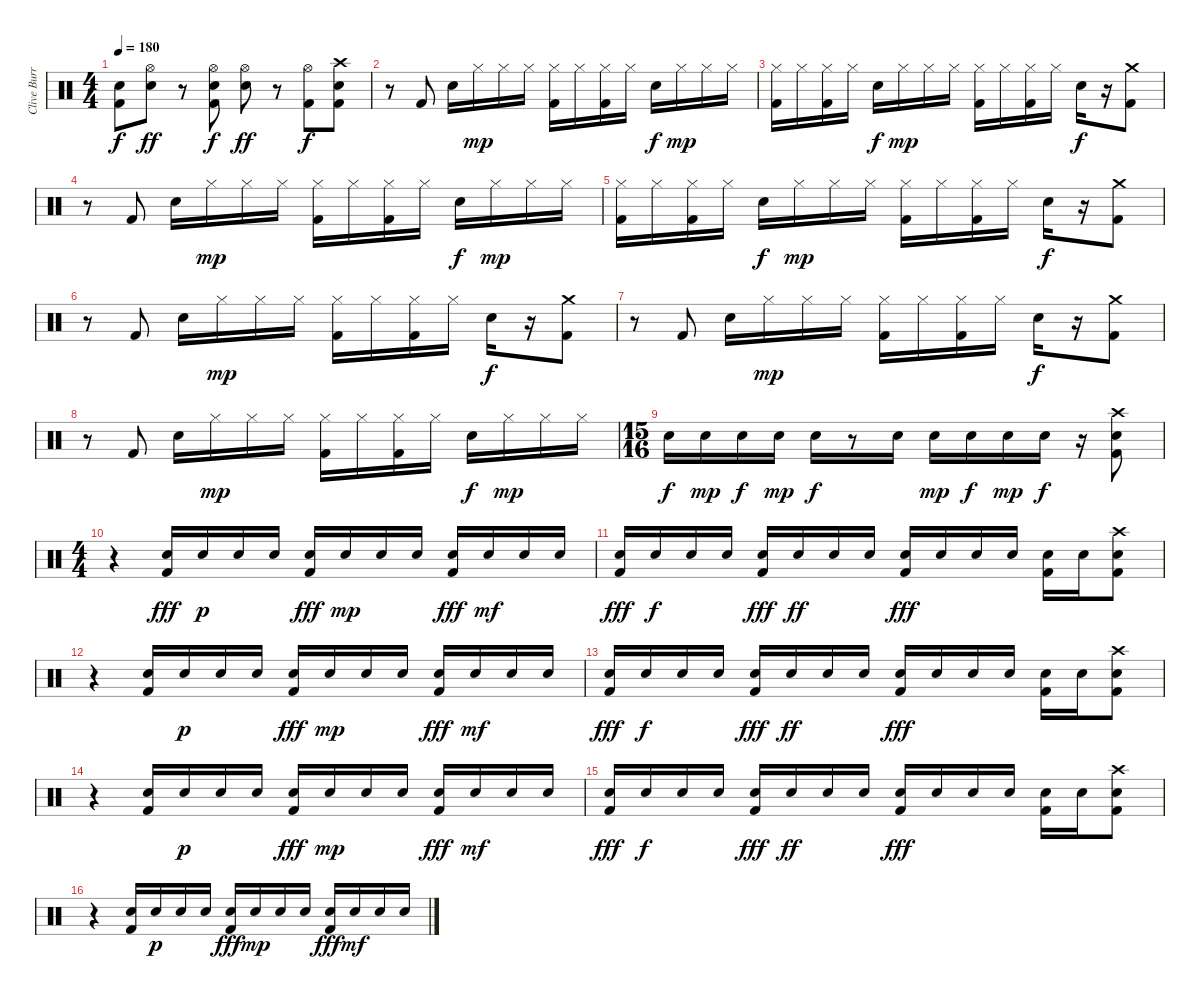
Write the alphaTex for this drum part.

\track ("Clive Burr - Drums" "Clive Burr") {instrument percussion}
\staff {score}
\articulation defaults
\ts (4 4)
\tempo 180
\clef neutral
\ks c
("Snare (hit) 2" "Kick (hit) 2").8{dy f} ("Hi-Hat (open)" "Snare (hit) 2").8{dy ff} r.8 ("Hi-Hat (open)" "Snare (hit) 2" "Kick (hit) 2").8{dy f} ("Hi-Hat (open)" "Snare (hit) 2").8{dy ff} r.8 ("Hi-Hat (open)" "Kick (hit) 2").8{dy f} ("Crash high (hit)" "Snare (hit) 2" "Kick (hit) 2").8 |
r.8 "Kick (hit) 2".8 "Snare (hit) 2".16 "Hi-Hat (closed)".16{dy mp} "Hi-Hat (closed)".16 "Hi-Hat (closed)".16 ("Hi-Hat (closed)" "Kick (hit) 2").16 "Hi-Hat (closed)".16 ("Hi-Hat (closed)" "Kick (hit) 2").16 "Hi-Hat (closed)".16 "Snare (hit) 2".16{dy f} "Hi-Hat (closed)".16{dy mp} "Hi-Hat (closed)".16 "Hi-Hat (closed)".16 |
("Hi-Hat (closed)" "Kick (hit) 2").16 "Hi-Hat (closed)".16 ("Hi-Hat (closed)" "Kick (hit) 2").16 "Hi-Hat (closed)".16 "Snare (hit) 2".16{dy f} "Hi-Hat (closed)".16{dy mp} "Hi-Hat (closed)".16 "Hi-Hat (closed)".16 ("Hi-Hat (closed)" "Kick (hit) 2").16 "Hi-Hat (closed)".16 ("Hi-Hat (closed)" "Kick (hit) 2").16 "Hi-Hat (closed)".16 "Snare (hit) 2".16{dy f} r.16 ("Crash medium (hit)" "Kick (hit) 2").8 |
r.8 "Kick (hit) 2".8 "Snare (hit) 2".16 "Hi-Hat (closed)".16{dy mp} "Hi-Hat (closed)".16 "Hi-Hat (closed)".16 ("Hi-Hat (closed)" "Kick (hit) 2").16 "Hi-Hat (closed)".16 ("Hi-Hat (closed)" "Kick (hit) 2").16 "Hi-Hat (closed)".16 "Snare (hit) 2".16{dy f} "Hi-Hat (closed)".16{dy mp} "Hi-Hat (closed)".16 "Hi-Hat (closed)".16 |
("Hi-Hat (closed)" "Kick (hit) 2").16 "Hi-Hat (closed)".16 ("Hi-Hat (closed)" "Kick (hit) 2").16 "Hi-Hat (closed)".16 "Snare (hit) 2".16{dy f} "Hi-Hat (closed)".16{dy mp} "Hi-Hat (closed)".16 "Hi-Hat (closed)".16 ("Hi-Hat (closed)" "Kick (hit) 2").16 "Hi-Hat (closed)".16 ("Hi-Hat (closed)" "Kick (hit) 2").16 "Hi-Hat (closed)".16 "Snare (hit) 2".16{dy f} r.16 ("Crash medium (hit)" "Kick (hit) 2").8 |
r.8 "Kick (hit) 2".8 "Snare (hit) 2".16 "Hi-Hat (closed)".16{dy mp} "Hi-Hat (closed)".16 "Hi-Hat (closed)".16 ("Hi-Hat (closed)" "Kick (hit) 2").16 "Hi-Hat (closed)".16 ("Hi-Hat (closed)" "Kick (hit) 2").16 "Hi-Hat (closed)".16 "Snare (hit) 2".16{dy f} r.16 ("Crash medium (hit)" "Kick (hit) 2").8 |
r.8 "Kick (hit) 2".8 "Snare (hit) 2".16 "Hi-Hat (closed)".16{dy mp} "Hi-Hat (closed)".16 "Hi-Hat (closed)".16 ("Hi-Hat (closed)" "Kick (hit) 2").16 "Hi-Hat (closed)".16 ("Hi-Hat (closed)" "Kick (hit) 2").16 "Hi-Hat (closed)".16 "Snare (hit) 2".16{dy f} r.16 ("Crash medium (hit)" "Kick (hit) 2").8 |
r.8 "Kick (hit) 2".8 "Snare (hit) 2".16 "Hi-Hat (closed)".16{dy mp} "Hi-Hat (closed)".16 "Hi-Hat (closed)".16 ("Hi-Hat (closed)" "Kick (hit) 2").16 "Hi-Hat (closed)".16 ("Hi-Hat (closed)" "Kick (hit) 2").16 "Hi-Hat (closed)".16 "Snare (hit) 2".16{dy f} "Hi-Hat (closed)".16{dy mp} "Hi-Hat (closed)".16 "Hi-Hat (closed)".16 |
\ts (15 16)
"Snare (hit) 2".16{dy f} "Snare (hit) 2".16{dy mp} "Snare (hit) 2".16{dy f} "Snare (hit) 2".16{dy mp} "Snare (hit) 2".16{dy f} r.8 "Snare (hit) 2".16 "Snare (hit) 2".16{dy mp} "Snare (hit) 2".16{dy f} "Snare (hit) 2".16{dy mp} "Snare (hit) 2".16{dy f} r.16 ("Crash high (hit)" "Snare (hit) 2" "Kick (hit) 2").8 |
\ts (4 4)
r.4 ("Snare (hit) 2" "Kick (hit) 2").16{dy fff} "Snare (hit) 2".16{dy p} "Snare (hit) 2".16 "Snare (hit) 2".16 ("Snare (hit) 2" "Kick (hit) 2").16{dy fff} "Snare (hit) 2".16{dy mp} "Snare (hit) 2".16 "Snare (hit) 2".16 ("Snare (hit) 2" "Kick (hit) 2").16{dy fff} "Snare (hit) 2".16{dy mf} "Snare (hit) 2".16 "Snare (hit) 2".16 |
("Snare (hit) 2" "Kick (hit) 2").16{dy fff} "Snare (hit) 2".16{dy f} "Snare (hit) 2".16 "Snare (hit) 2".16 ("Snare (hit) 2" "Kick (hit) 2").16{dy fff} "Snare (hit) 2".16{dy ff} "Snare (hit) 2".16 "Snare (hit) 2".16 ("Snare (hit) 2" "Kick (hit) 2").16{dy fff} "Snare (hit) 2".16 "Snare (hit) 2".16 "Snare (hit) 2".16 ("Snare (hit) 2" "Kick (hit) 2").16 "Snare (hit) 2".16 ("Crash high (hit)" "Snare (hit) 2" "Kick (hit) 2").8 |
r.4 ("Snare (hit) 2" "Kick (hit) 2").16 "Snare (hit) 2".16{dy p} "Snare (hit) 2".16 "Snare (hit) 2".16 ("Snare (hit) 2" "Kick (hit) 2").16{dy fff} "Snare (hit) 2".16{dy mp} "Snare (hit) 2".16 "Snare (hit) 2".16 ("Snare (hit) 2" "Kick (hit) 2").16{dy fff} "Snare (hit) 2".16{dy mf} "Snare (hit) 2".16 "Snare (hit) 2".16 |
("Snare (hit) 2" "Kick (hit) 2").16{dy fff} "Snare (hit) 2".16{dy f} "Snare (hit) 2".16 "Snare (hit) 2".16 ("Snare (hit) 2" "Kick (hit) 2").16{dy fff} "Snare (hit) 2".16{dy ff} "Snare (hit) 2".16 "Snare (hit) 2".16 ("Snare (hit) 2" "Kick (hit) 2").16{dy fff} "Snare (hit) 2".16 "Snare (hit) 2".16 "Snare (hit) 2".16 ("Snare (hit) 2" "Kick (hit) 2").16 "Snare (hit) 2".16 ("Crash high (hit)" "Snare (hit) 2" "Kick (hit) 2").8 |
r.4 ("Snare (hit) 2" "Kick (hit) 2").16 "Snare (hit) 2".16{dy p} "Snare (hit) 2".16 "Snare (hit) 2".16 ("Snare (hit) 2" "Kick (hit) 2").16{dy fff} "Snare (hit) 2".16{dy mp} "Snare (hit) 2".16 "Snare (hit) 2".16 ("Snare (hit) 2" "Kick (hit) 2").16{dy fff} "Snare (hit) 2".16{dy mf} "Snare (hit) 2".16 "Snare (hit) 2".16 |
("Snare (hit) 2" "Kick (hit) 2").16{dy fff} "Snare (hit) 2".16{dy f} "Snare (hit) 2".16 "Snare (hit) 2".16 ("Snare (hit) 2" "Kick (hit) 2").16{dy fff} "Snare (hit) 2".16{dy ff} "Snare (hit) 2".16 "Snare (hit) 2".16 ("Snare (hit) 2" "Kick (hit) 2").16{dy fff} "Snare (hit) 2".16 "Snare (hit) 2".16 "Snare (hit) 2".16 ("Snare (hit) 2" "Kick (hit) 2").16 "Snare (hit) 2".16 ("Crash high (hit)" "Snare (hit) 2" "Kick (hit) 2").8 |
r.4 ("Snare (hit) 2" "Kick (hit) 2").16 "Snare (hit) 2".16{dy p} "Snare (hit) 2".16 "Snare (hit) 2".16 ("Snare (hit) 2" "Kick (hit) 2").16{dy fff} "Snare (hit) 2".16{dy mp} "Snare (hit) 2".16 "Snare (hit) 2".16 ("Snare (hit) 2" "Kick (hit) 2").16{dy fff} "Snare (hit) 2".16{dy mf} "Snare (hit) 2".16 "Snare (hit) 2".16
